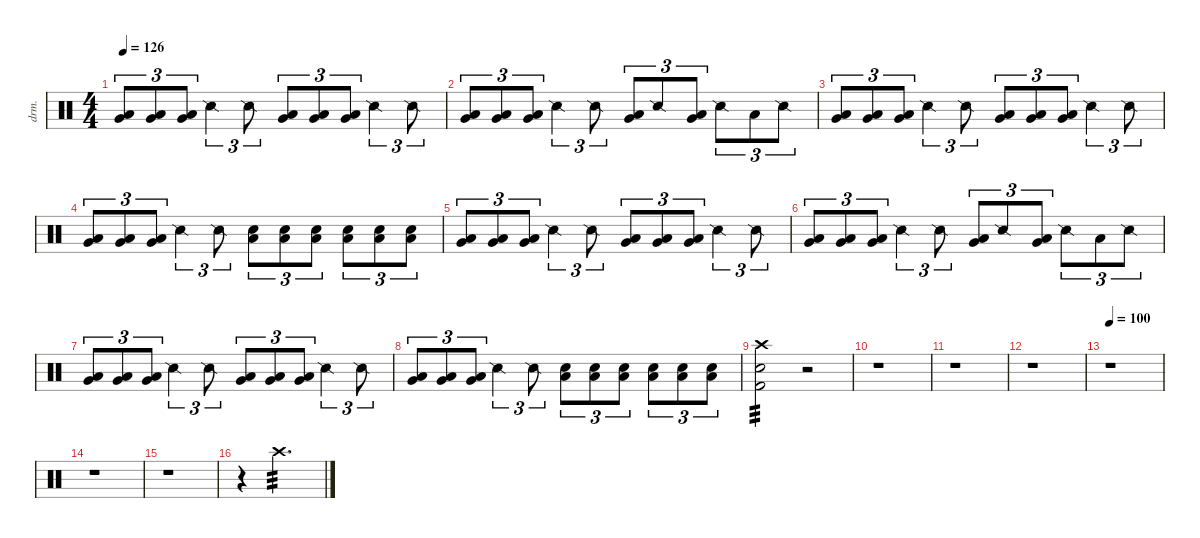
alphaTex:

\defaultSystemsLayout 4
\hideDynamics
\bracketExtendMode nobrackets
\otherSystemsTrackNameOrientation horizontal
\track ("Percussion" "drm.") {instrument percussion}
\staff {score}
\articulation defaults
\ts (4 4)
\tempo 126
\clef neutral
\ks c
("Very Low Tom (hit)" "Low Floor Tom (hit)").8{tu (3 2) dy ff beam Up} ("Very Low Tom (hit)" "Low Floor Tom (hit)").8{tu (3 2) beam Up} ("Very Low Tom (hit)" "Low Floor Tom (hit)").8{tu (3 2) beam Up} "Snare (side stick) 2".4{tu (3 2) dy f beam Down} "Snare (side stick) 2".8{tu (3 2) beam Down} ("Very Low Tom (hit)" "Low Floor Tom (hit)").8{tu (3 2) dy ff beam Up} ("Very Low Tom (hit)" "Low Floor Tom (hit)").8{tu (3 2) beam Up} ("Very Low Tom (hit)" "Low Floor Tom (hit)").8{tu (3 2) beam Up} "Snare (side stick) 2".4{tu (3 2) dy f beam Down} "Snare (side stick) 2".8{tu (3 2) beam Down} |
("Very Low Tom (hit)" "Low Floor Tom (hit)").8{tu (3 2) dy ff beam Up} ("Very Low Tom (hit)" "Low Floor Tom (hit)").8{tu (3 2) beam Up} ("Very Low Tom (hit)" "Low Floor Tom (hit)").8{tu (3 2) beam Up} "Snare (side stick) 2".4{tu (3 2) dy f beam Down} "Snare (side stick) 2".8{tu (3 2) beam Down} ("Very Low Tom (hit)" "Low Floor Tom (hit)").8{tu (3 2) dy ff beam Up} "Snare (side stick) 2".8{tu (3 2) dy f beam Up} ("Very Low Tom (hit)" "Low Floor Tom (hit)").8{tu (3 2) dy ff beam Up} "Snare (side stick) 2".8{tu (3 2) dy f beam Down} "Low Floor Tom (hit)".8{tu (3 2) beam Down} "Snare (side stick) 2".8{tu (3 2) dy ff beam Down} |
("Very Low Tom (hit)" "Low Floor Tom (hit)").8{tu (3 2) beam Up} ("Very Low Tom (hit)" "Low Floor Tom (hit)").8{tu (3 2) beam Up} ("Very Low Tom (hit)" "Low Floor Tom (hit)").8{tu (3 2) beam Up} "Snare (side stick) 2".4{tu (3 2) dy f beam Down} "Snare (side stick) 2".8{tu (3 2) beam Down} ("Very Low Tom (hit)" "Low Floor Tom (hit)").8{tu (3 2) dy ff beam Up} ("Very Low Tom (hit)" "Low Floor Tom (hit)").8{tu (3 2) beam Up} ("Very Low Tom (hit)" "Low Floor Tom (hit)").8{tu (3 2) beam Up} "Snare (side stick) 2".4{tu (3 2) dy f beam Down} "Snare (side stick) 2".8{tu (3 2) beam Down} |
("Very Low Tom (hit)" "Low Floor Tom (hit)").8{tu (3 2) dy ff beam Up} ("Very Low Tom (hit)" "Low Floor Tom (hit)").8{tu (3 2) beam Up} ("Very Low Tom (hit)" "Low Floor Tom (hit)").8{tu (3 2) beam Up} "Snare (side stick) 2".4{tu (3 2) dy f beam Down} "Snare (side stick) 2".8{tu (3 2) beam Down} ("Snare (hit) 2" "Low Floor Tom (hit)").8{tu (3 2) dy ff beam Down} ("Snare (hit) 2" "Low Floor Tom (hit)").8{tu (3 2) beam Down} ("Snare (hit) 2" "Low Floor Tom (hit)").8{tu (3 2) beam Down} ("Snare (hit) 2" "Low Floor Tom (hit)").8{tu (3 2) beam Down} ("Snare (hit) 2" "Low Floor Tom (hit)").8{tu (3 2) beam Down} ("Snare (hit) 2" "Low Floor Tom (hit)").8{tu (3 2) beam Down} |
("Very Low Tom (hit)" "Low Floor Tom (hit)").8{tu (3 2) beam Up} ("Very Low Tom (hit)" "Low Floor Tom (hit)").8{tu (3 2) beam Up} ("Very Low Tom (hit)" "Low Floor Tom (hit)").8{tu (3 2) beam Up} "Snare (side stick) 2".4{tu (3 2) dy f beam Down} "Snare (side stick) 2".8{tu (3 2) beam Down} ("Very Low Tom (hit)" "Low Floor Tom (hit)").8{tu (3 2) dy ff beam Up} ("Very Low Tom (hit)" "Low Floor Tom (hit)").8{tu (3 2) beam Up} ("Very Low Tom (hit)" "Low Floor Tom (hit)").8{tu (3 2) beam Up} "Snare (side stick) 2".4{tu (3 2) dy f beam Down} "Snare (side stick) 2".8{tu (3 2) beam Down} |
("Very Low Tom (hit)" "Low Floor Tom (hit)").8{tu (3 2) dy ff beam Up} ("Very Low Tom (hit)" "Low Floor Tom (hit)").8{tu (3 2) beam Up} ("Very Low Tom (hit)" "Low Floor Tom (hit)").8{tu (3 2) beam Up} "Snare (side stick) 2".4{tu (3 2) dy f beam Down} "Snare (side stick) 2".8{tu (3 2) beam Down} ("Very Low Tom (hit)" "Low Floor Tom (hit)").8{tu (3 2) dy ff beam Up} "Snare (side stick) 2".8{tu (3 2) dy f beam Up} ("Very Low Tom (hit)" "Low Floor Tom (hit)").8{tu (3 2) dy ff beam Up} "Snare (side stick) 2".8{tu (3 2) dy f beam Down} "Low Floor Tom (hit)".8{tu (3 2) beam Down} "Snare (side stick) 2".8{tu (3 2) dy ff beam Down} |
("Very Low Tom (hit)" "Low Floor Tom (hit)").8{tu (3 2) beam Up} ("Very Low Tom (hit)" "Low Floor Tom (hit)").8{tu (3 2) beam Up} ("Very Low Tom (hit)" "Low Floor Tom (hit)").8{tu (3 2) beam Up} "Snare (side stick) 2".4{tu (3 2) dy f beam Down} "Snare (side stick) 2".8{tu (3 2) beam Down} ("Very Low Tom (hit)" "Low Floor Tom (hit)").8{tu (3 2) dy ff beam Up} ("Very Low Tom (hit)" "Low Floor Tom (hit)").8{tu (3 2) beam Up} ("Very Low Tom (hit)" "Low Floor Tom (hit)").8{tu (3 2) beam Up} "Snare (side stick) 2".4{tu (3 2) dy f beam Down} "Snare (side stick) 2".8{tu (3 2) beam Down} |
("Very Low Tom (hit)" "Low Floor Tom (hit)").8{tu (3 2) dy ff beam Up} ("Very Low Tom (hit)" "Low Floor Tom (hit)").8{tu (3 2) beam Up} ("Very Low Tom (hit)" "Low Floor Tom (hit)").8{tu (3 2) beam Up} "Snare (side stick) 2".4{tu (3 2) dy f beam Down} "Snare (side stick) 2".8{tu (3 2) beam Down} ("Snare (hit) 2" "Low Floor Tom (hit)").8{tu (3 2) dy ff beam Down} ("Snare (hit) 2" "Low Floor Tom (hit)").8{tu (3 2) beam Down} ("Snare (hit) 2" "Low Floor Tom (hit)").8{tu (3 2) beam Down} ("Snare (hit) 2" "Low Floor Tom (hit)").8{tu (3 2) beam Down} ("Snare (hit) 2" "Low Floor Tom (hit)").8{tu (3 2) beam Down} ("Snare (hit) 2" "Low Floor Tom (hit)").8{tu (3 2) beam Down} |
("Crash high (hit)" "Snare (hit) 2" "Kick (hit) 2").2{tp 3 beam Down} r.2{beam Down} |
r.1{beam Down} |
r.1{beam Down} |
r.1{beam Down} |
\tempo 100
r.1{beam Down} |
r.1{beam Down} |
r.1{beam Down} |
r.4{beam Down} "Crash high (hit)".2{d tp 3 beam Down}
